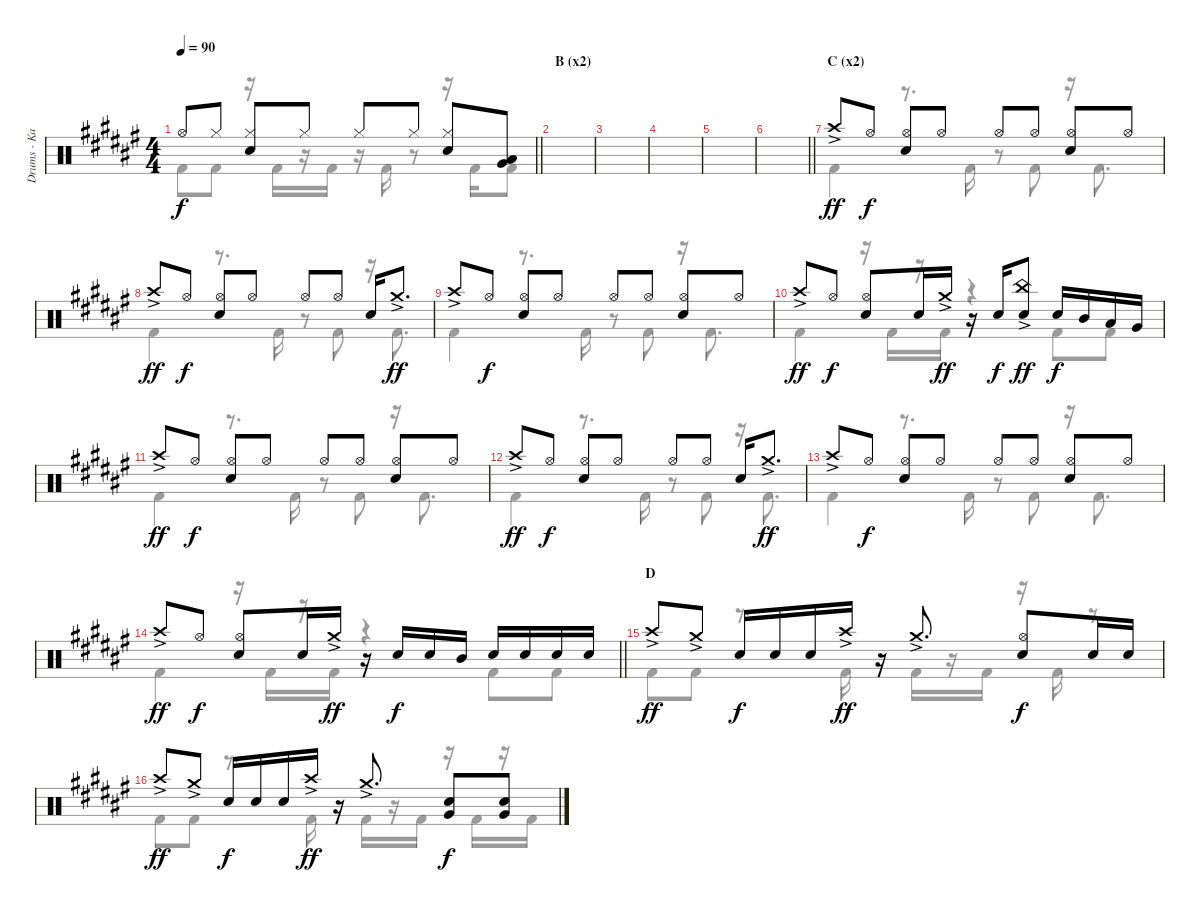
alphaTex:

\track ("Drums - Kai" "Drums - Ka") {instrument percussion}
\staff {score}
\articulation defaults
\voice
\ts (4 4)
\tempo 90
\clef neutral
\barLineRight lightlight
\ks f# "Hi-Hat (open)".8{dy f} "Hi-Hat (closed)".8
("Hi-Hat (closed)" "Snare (hit) 2").8 "Hi-Hat (closed)".8 "Hi-Hat (closed)".8 "Hi-Hat (closed)".8 ("Hi-Hat (closed)" "Snare (hit) 2").8 ("Low Tom (hit)" "Very Low Tom (hit)").8 |
\section ("" "B (x2)")
|
|
|
|
\barLineRight lightlight
|
\section ("" "C (x2)")
"Crash high (hit)"{ac}.8{dy ff} "Hi-Hat (open)".8{dy f} ("Hi-Hat (open)" "Snare (hit) 2").8 "Hi-Hat (open)".8 "Hi-Hat (open)".8 "Hi-Hat (open)".8 ("Hi-Hat (open)" "Snare (hit) 2").8 "Hi-Hat (open)".8 |
"Crash high (hit)"{ac}.8{dy ff} "Hi-Hat (open)".8{dy f} ("Hi-Hat (open)" "Snare (hit) 2").8 "Hi-Hat (open)".8 "Hi-Hat (open)".8 "Hi-Hat (open)".8 "Snare (hit) 2".16 "Crash medium (hit)"{ac}.8{d dy ff} |
"Crash high (hit)"{ac}.8 "Hi-Hat (open)".8{dy f} ("Hi-Hat (open)" "Snare (hit) 2").8 "Hi-Hat (open)".8 "Hi-Hat (open)".8 "Hi-Hat (open)".8 ("Hi-Hat (open)" "Snare (hit) 2").8 "Hi-Hat (open)".8 |
"Crash high (hit)"{ac}.8{dy ff} "Hi-Hat (open)".8{dy f} ("Hi-Hat (open)" "Snare (hit) 2").8 "Snare (hit) 2".16 "Crash medium (hit)"{ac}.16{dy ff} r.16 "Snare (hit) 2".16{dy f} ("China (hit)"{ac} "Snare (hit) 2").8{dy ff} "Snare (hit) 2".16{dy f} "Mid Tom (hit)".16 "Low Tom (hit)".16 "Very Low Tom (hit)".16 |
"Crash high (hit)"{ac}.8{dy ff} "Hi-Hat (open)".8{dy f} ("Hi-Hat (open)" "Snare (hit) 2").8 "Hi-Hat (open)".8 "Hi-Hat (open)".8 "Hi-Hat (open)".8 ("Hi-Hat (open)" "Snare (hit) 2").8 "Hi-Hat (open)".8 |
"Crash high (hit)"{ac}.8{dy ff} "Hi-Hat (open)".8{dy f} ("Hi-Hat (open)" "Snare (hit) 2").8 "Hi-Hat (open)".8 "Hi-Hat (open)".8 "Hi-Hat (open)".8 "Snare (hit) 2".16 "Crash medium (hit)"{ac}.8{d dy ff} |
"Crash high (hit)"{ac}.8 "Hi-Hat (open)".8{dy f} ("Hi-Hat (open)" "Snare (hit) 2").8 "Hi-Hat (open)".8 "Hi-Hat (open)".8 "Hi-Hat (open)".8 ("Hi-Hat (open)" "Snare (hit) 2").8 "Hi-Hat (open)".8 |
\barLineRight lightlight "Crash high (hit)"{ac}.8{dy ff} "Hi-Hat (open)".8{dy f}
("Hi-Hat (open)" "Snare (hit) 2").8 "Snare (hit) 2".16 "Crash medium (hit)"{ac}.16{dy ff} r.16 "Snare (hit) 2".16{dy f} "Snare (hit) 2".16 "Mid Tom (hit)".16 "Snare (hit) 2".16 "Snare (hit) 2".16 "Snare (hit) 2".16 "Snare (hit) 2".16 |
\section ("" "D")
"Crash high (hit)"{ac}.8{dy ff} "Crash medium (hit)"{ac}.8 "Snare (hit) 2".16{dy f} "Snare (hit) 2".16 "Snare (hit) 2".16 "Crash high (hit)"{ac}.16{dy ff} r.16 "Crash medium (hit)"{ac}.8{d} ("Hi-Hat (open)" "Snare (hit) 2").8{dy f} "Snare (hit) 2".16 "Snare (hit) 2".16 |
"Crash high (hit)"{ac}.8{dy ff} "Crash medium (hit)"{ac}.8 "Snare (hit) 2".16{dy f} "Snare (hit) 2".16 "Snare (hit) 2".16 "Crash high (hit)"{ac}.16{dy ff} r.16 "Crash medium (hit)"{ac}.8{d} ("Very Low Tom (hit)" "Snare (hit) 2").8{dy f} ("Very Low Tom (hit)" "Snare (hit) 2").8
\voice
\clef neutral
\ottava regular
\simile none
\barLineRight lightlight
\ks f# "Kick (hit) 2".8{dy f} "Kick (hit) 2".8
r.16 "Kick (hit) 2".16 r.16 "Kick (hit) 2".16 r.16 "Kick (hit) 2".16 r.8 r.16 "Kick (hit) 2".16 "Kick (hit) 2".8 |
|
|
|
|
\barLineRight lightlight
|
"Kick (hit) 2".4 r.8{d} "Kick (hit) 2".16 r.8 "Kick (hit) 2".8 r.16 "Kick (hit) 2".8{d} |
"Kick (hit) 2".4 r.8{d} "Kick (hit) 2".16 r.8 "Kick (hit) 2".8 r.16 "Kick (hit) 2".8{d} |
"Kick (hit) 2".4 r.8{d} "Kick (hit) 2".16 r.8 "Kick (hit) 2".8 r.16 "Kick (hit) 2".8{d} |
"Kick (hit) 2".4 r.16 "Kick (hit) 2".16 r.16 "Kick (hit) 2".16 r.4 "Kick (hit) 2".8 "Kick (hit) 2".8 |
"Kick (hit) 2".4 r.8{d} "Kick (hit) 2".16 r.8 "Kick (hit) 2".8 r.16 "Kick (hit) 2".8{d} |
"Kick (hit) 2".4 r.8{d} "Kick (hit) 2".16 r.8 "Kick (hit) 2".8 r.16 "Kick (hit) 2".8{d} |
"Kick (hit) 2".4 r.8{d} "Kick (hit) 2".16 r.8 "Kick (hit) 2".8 r.16 "Kick (hit) 2".8{d} |
\barLineRight lightlight "Kick (hit) 2".4
r.16 "Kick (hit) 2".16 r.16 "Kick (hit) 2".16 r.4 "Kick (hit) 2".8 "Kick (hit) 2".8 |
"Kick (hit) 2".8 "Kick (hit) 2".8 r.8{d} "Kick (hit) 2".16 r.16 "Kick (hit) 2".16 r.16 "Kick (hit) 2".16 r.16 "Kick (hit) 2".16 r.8 |
"Kick (hit) 2".8 "Kick (hit) 2".8 r.8{d} "Kick (hit) 2".16 r.16 "Kick (hit) 2".16 r.16 "Kick (hit) 2".16 r.16 "Kick (hit) 2".16 r.16 "Kick (hit) 2".16
